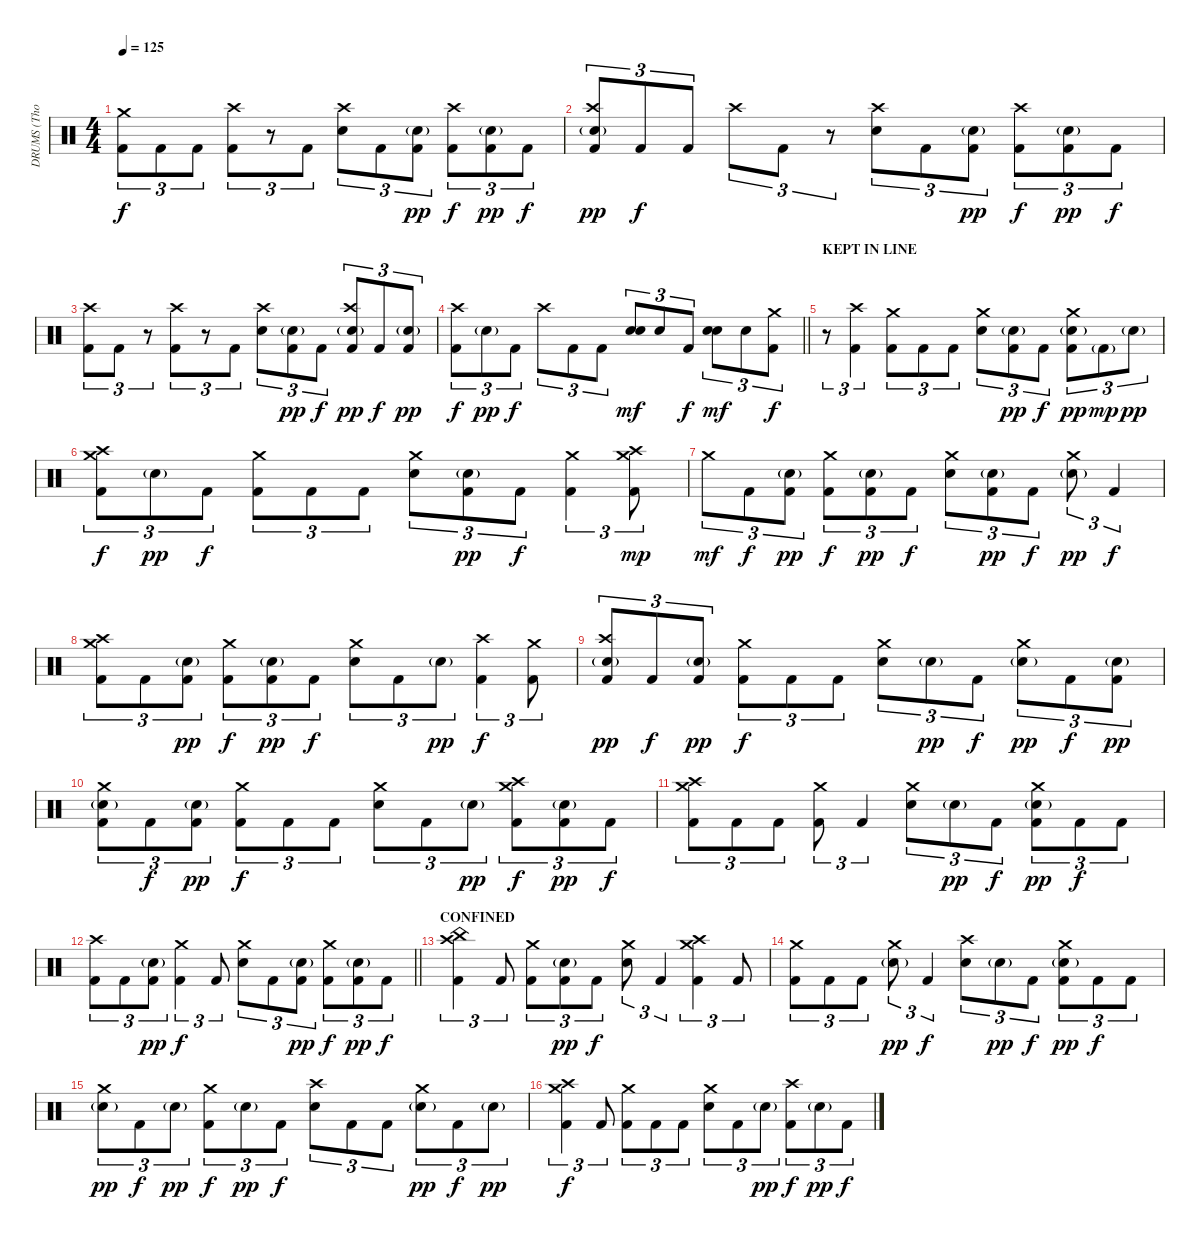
\track ("DRUMS (Thomas Haake)" "DRUMS (Tho") {instrument percussion}
\staff {score}
\articulation defaults
\ts (4 4)
\tempo 125
\clef neutral
\ks c
("Crash medium (hit)" "Kick (hit) 2").8{tu (3 2) dy f} "Kick (hit) 2".8{tu (3 2)} "Kick (hit) 2".8{tu (3 2)} ("Crash high (hit)" "Kick (hit) 2").8{tu (3 2)} r.8{tu (3 2)} "Kick (hit) 2".8{tu (3 2)} ("Crash high (hit)" "Electric Snare (hit)").8{tu (3 2)} "Kick (hit) 2".8{tu (3 2)} ("Electric Snare (hit)"{g} "Kick (hit) 2").8{tu (3 2) dy pp} ("Crash high (hit)" "Kick (hit) 2").8{tu (3 2) dy f} ("Electric Snare (hit)"{g} "Kick (hit) 2").8{tu (3 2) dy pp} "Kick (hit) 2".8{tu (3 2) dy f} |
("Crash high (hit)" "Electric Snare (hit)"{g} "Kick (hit) 2").8{tu (3 2) dy pp} "Kick (hit) 2".8{tu (3 2) dy f} "Kick (hit) 2".8{tu (3 2)} "Crash high (hit)".8{tu (3 2)} "Kick (hit) 2".8{tu (3 2)} r.8{tu (3 2)} ("Crash high (hit)" "Electric Snare (hit)").8{tu (3 2)} "Kick (hit) 2".8{tu (3 2)} ("Electric Snare (hit)"{g} "Kick (hit) 2").8{tu (3 2) dy pp} ("Crash high (hit)" "Kick (hit) 2").8{tu (3 2) dy f} ("Electric Snare (hit)"{g} "Kick (hit) 2").8{tu (3 2) dy pp} "Kick (hit) 2".8{tu (3 2) dy f} |
("Crash high (hit)" "Kick (hit) 2").8{tu (3 2)} "Kick (hit) 2".8{tu (3 2)} r.8{tu (3 2)} ("Crash high (hit)" "Kick (hit) 2").8{tu (3 2)} r.8{tu (3 2)} "Kick (hit) 2".8{tu (3 2)} ("Crash high (hit)" "Electric Snare (hit)").8{tu (3 2)} ("Electric Snare (hit)"{g} "Kick (hit) 2").8{tu (3 2) dy pp} "Kick (hit) 2".8{tu (3 2) dy f} ("Crash high (hit)" "Electric Snare (hit)"{g} "Kick (hit) 2").8{tu (3 2) dy pp} "Kick (hit) 2".8{tu (3 2) dy f} ("Electric Snare (hit)"{g} "Kick (hit) 2").8{tu (3 2) dy pp} |
\barLineRight lightlight
("Crash high (hit)" "Kick (hit) 2").8{tu (3 2) dy f} "Electric Snare (hit)"{g}.8{tu (3 2) dy pp} "Kick (hit) 2".8{tu (3 2) dy f} "Crash high (hit)".8{tu (3 2)} "Kick (hit) 2".8{tu (3 2)} "Kick (hit) 2".8{tu (3 2)} ("Electric Snare (hit)" "Electric Snare (hit)").8{tu (3 2) bd 60 dy mf} "Electric Snare (hit)".8{tu (3 2)} "Kick (hit) 2".8{tu (3 2) dy f} ("Electric Snare (hit)" "Electric Snare (hit)").8{tu (3 2) bd 30 dy mf} "Electric Snare (hit)".8{tu (3 2)} ("Crash medium (hit)" "Kick (hit) 2").8{tu (3 2) dy f} |
\section ("" "KEPT IN LINE")
r.8{tu (3 2)} ("Crash high (hit)" "Kick (hit) 2").4{tu (3 2)} ("Crash medium (hit)" "Kick (hit) 2").8{tu (3 2)} "Kick (hit) 2".8{tu (3 2)} "Kick (hit) 2".8{tu (3 2)} ("Crash medium (hit)" "Electric Snare (hit)").8{tu (3 2)} ("Electric Snare (hit)"{g} "Kick (hit) 2").8{tu (3 2) dy pp} "Kick (hit) 2".8{tu (3 2) dy f} ("Crash medium (hit)" "Electric Snare (hit)"{g} "Kick (hit) 2").8{tu (3 2) dy pp} "Kick (hit) 2"{g}.8{tu (3 2) dy mp} "Electric Snare (hit)"{g}.8{tu (3 2) dy pp} |
("Crash high (hit)" "Crash medium (hit)" "Kick (hit) 2").8{tu (3 2) dy f} "Electric Snare (hit)"{g}.8{tu (3 2) dy pp} "Kick (hit) 2".8{tu (3 2) dy f} ("Crash medium (hit)" "Kick (hit) 2").8{tu (3 2)} "Kick (hit) 2".8{tu (3 2)} "Kick (hit) 2".8{tu (3 2)} ("Crash medium (hit)" "Electric Snare (hit)").8{tu (3 2)} ("Electric Snare (hit)"{g} "Kick (hit) 2").8{tu (3 2) dy pp} "Kick (hit) 2".8{tu (3 2) dy f} ("Crash medium (hit)" "Kick (hit) 2").4{tu (3 2)} ("Crash medium (hit)" "Crash high (hit)" "Kick (hit) 2").8{tu (3 2) dy mp} |
"Crash medium (hit)".8{tu (3 2) dy mf} "Kick (hit) 2".8{tu (3 2) dy f} ("Electric Snare (hit)"{g} "Kick (hit) 2").8{tu (3 2) dy pp} ("Crash medium (hit)" "Kick (hit) 2").8{tu (3 2) dy f} ("Electric Snare (hit)"{g} "Kick (hit) 2").8{tu (3 2) dy pp} "Kick (hit) 2".8{tu (3 2) dy f} ("Crash medium (hit)" "Electric Snare (hit)").8{tu (3 2)} ("Electric Snare (hit)"{g} "Kick (hit) 2").8{tu (3 2) dy pp} "Kick (hit) 2".8{tu (3 2) dy f} ("Crash medium (hit)" "Electric Snare (hit)"{g}).8{tu (3 2) dy pp} "Kick (hit) 2".4{tu (3 2) dy f} |
("Crash high (hit)" "Crash medium (hit)" "Kick (hit) 2").8{tu (3 2)} "Kick (hit) 2".8{tu (3 2)} ("Electric Snare (hit)"{g} "Kick (hit) 2").8{tu (3 2) dy pp} ("Crash medium (hit)" "Kick (hit) 2").8{tu (3 2) dy f} ("Electric Snare (hit)"{g} "Kick (hit) 2").8{tu (3 2) dy pp} "Kick (hit) 2".8{tu (3 2) dy f} ("Crash medium (hit)" "Electric Snare (hit)").8{tu (3 2)} "Kick (hit) 2".8{tu (3 2)} "Electric Snare (hit)"{g}.8{tu (3 2) dy pp} ("Crash high (hit)" "Kick (hit) 2").4{tu (3 2) dy f} ("Crash medium (hit)" "Kick (hit) 2").8{tu (3 2)} |
("Crash high (hit)" "Electric Snare (hit)"{g} "Kick (hit) 2").8{tu (3 2) dy pp} "Kick (hit) 2".8{tu (3 2) dy f} ("Electric Snare (hit)"{g} "Kick (hit) 2").8{tu (3 2) dy pp} ("Crash medium (hit)" "Kick (hit) 2").8{tu (3 2) dy f} "Kick (hit) 2".8{tu (3 2)} "Kick (hit) 2".8{tu (3 2)} ("Crash medium (hit)" "Electric Snare (hit)").8{tu (3 2)} "Electric Snare (hit)"{g}.8{tu (3 2) dy pp} "Kick (hit) 2".8{tu (3 2) dy f} ("Crash medium (hit)" "Electric Snare (hit)"{g}).8{tu (3 2) dy pp} "Kick (hit) 2".8{tu (3 2) dy f} ("Electric Snare (hit)"{g} "Kick (hit) 2").8{tu (3 2) dy pp} |
("Crash medium (hit)" "Electric Snare (hit)"{g} "Kick (hit) 2").8{tu (3 2)} "Kick (hit) 2".8{tu (3 2) dy f} ("Electric Snare (hit)"{g} "Kick (hit) 2").8{tu (3 2) dy pp} ("Crash medium (hit)" "Kick (hit) 2").8{tu (3 2) dy f} "Kick (hit) 2".8{tu (3 2)} "Kick (hit) 2".8{tu (3 2)} ("Crash medium (hit)" "Electric Snare (hit)").8{tu (3 2)} "Kick (hit) 2".8{tu (3 2)} "Electric Snare (hit)"{g}.8{tu (3 2) dy pp} ("Crash high (hit)" "Crash medium (hit)" "Kick (hit) 2").8{tu (3 2) dy f} ("Electric Snare (hit)"{g} "Kick (hit) 2").8{tu (3 2) dy pp} "Kick (hit) 2".8{tu (3 2) dy f} |
("Crash high (hit)" "Crash medium (hit)" "Kick (hit) 2").8{tu (3 2)} "Kick (hit) 2".8{tu (3 2)} "Kick (hit) 2".8{tu (3 2)} ("Crash medium (hit)" "Kick (hit) 2").8{tu (3 2)} "Kick (hit) 2".4{tu (3 2)} ("Crash medium (hit)" "Electric Snare (hit)").8{tu (3 2)} "Electric Snare (hit)"{g}.8{tu (3 2) dy pp} "Kick (hit) 2".8{tu (3 2) dy f} ("Crash medium (hit)" "Electric Snare (hit)"{g} "Kick (hit) 2").8{tu (3 2) dy pp} "Kick (hit) 2".8{tu (3 2) dy f} "Kick (hit) 2".8{tu (3 2)} |
\barLineRight lightlight
("Crash high (hit)" "Kick (hit) 2").8{tu (3 2)} "Kick (hit) 2".8{tu (3 2)} ("Electric Snare (hit)"{g} "Kick (hit) 2").8{tu (3 2) dy pp} ("Crash medium (hit)" "Kick (hit) 2").4{tu (3 2) dy f} "Kick (hit) 2".8{tu (3 2)} ("Crash medium (hit)" "Electric Snare (hit)").8{tu (3 2)} "Kick (hit) 2".8{tu (3 2)} ("Electric Snare (hit)"{g} "Kick (hit) 2").8{tu (3 2) dy pp} ("Crash medium (hit)" "Kick (hit) 2").8{tu (3 2) dy f} ("Electric Snare (hit)"{g} "Kick (hit) 2").8{tu (3 2) dy pp} "Kick (hit) 2".8{tu (3 2) dy f} |
\section ("" "CONFINED")
("China (hit)" "Crash high (hit)" "Kick (hit) 2").4{tu (3 2)} "Kick (hit) 2".8{tu (3 2)} ("Crash medium (hit)" "Kick (hit) 2").8{tu (3 2)} ("Electric Snare (hit)"{g} "Kick (hit) 2").8{tu (3 2) dy pp} "Kick (hit) 2".8{tu (3 2) dy f} ("Crash medium (hit)" "Electric Snare (hit)").8{tu (3 2)} "Kick (hit) 2".4{tu (3 2)} ("Crash medium (hit)" "Crash high (hit)" "Kick (hit) 2").4{tu (3 2)} "Kick (hit) 2".8{tu (3 2)} |
("Crash medium (hit)" "Kick (hit) 2").8{tu (3 2)} "Kick (hit) 2".8{tu (3 2)} "Kick (hit) 2".8{tu (3 2)} ("Crash medium (hit)" "Electric Snare (hit)"{g}).8{tu (3 2) dy pp} "Kick (hit) 2".4{tu (3 2) dy f} ("Crash high (hit)" "Electric Snare (hit)").8{tu (3 2)} "Electric Snare (hit)"{g}.8{tu (3 2) dy pp} "Kick (hit) 2".8{tu (3 2) dy f} ("Crash medium (hit)" "Electric Snare (hit)"{g} "Kick (hit) 2").8{tu (3 2) dy pp} "Kick (hit) 2".8{tu (3 2) dy f} "Kick (hit) 2".8{tu (3 2)} |
("Crash medium (hit)" "Electric Snare (hit)"{g}).8{tu (3 2) dy pp} "Kick (hit) 2".8{tu (3 2) dy f} "Electric Snare (hit)"{g}.8{tu (3 2) dy pp} ("Crash medium (hit)" "Kick (hit) 2").8{tu (3 2) dy f} "Electric Snare (hit)"{g}.8{tu (3 2) dy pp} "Kick (hit) 2".8{tu (3 2) dy f} ("Crash high (hit)" "Electric Snare (hit)").8{tu (3 2)} "Kick (hit) 2".8{tu (3 2)} "Kick (hit) 2".8{tu (3 2)} ("Crash medium (hit)" "Electric Snare (hit)"{g}).8{tu (3 2) dy pp} "Kick (hit) 2".8{tu (3 2) dy f} "Electric Snare (hit)"{g}.8{tu (3 2) dy pp} |
("Crash medium (hit)" "Crash high (hit)" "Kick (hit) 2").4{tu (3 2) dy f} "Kick (hit) 2".8{tu (3 2)} ("Crash medium (hit)" "Kick (hit) 2").8{tu (3 2)} "Kick (hit) 2".8{tu (3 2)} "Kick (hit) 2".8{tu (3 2)} ("Crash medium (hit)" "Electric Snare (hit)").8{tu (3 2)} "Kick (hit) 2".8{tu (3 2)} "Electric Snare (hit)"{g}.8{tu (3 2) dy pp} ("Crash high (hit)" "Kick (hit) 2").8{tu (3 2) dy f} "Electric Snare (hit)"{g}.8{tu (3 2) dy pp} "Kick (hit) 2".8{tu (3 2) dy f}
